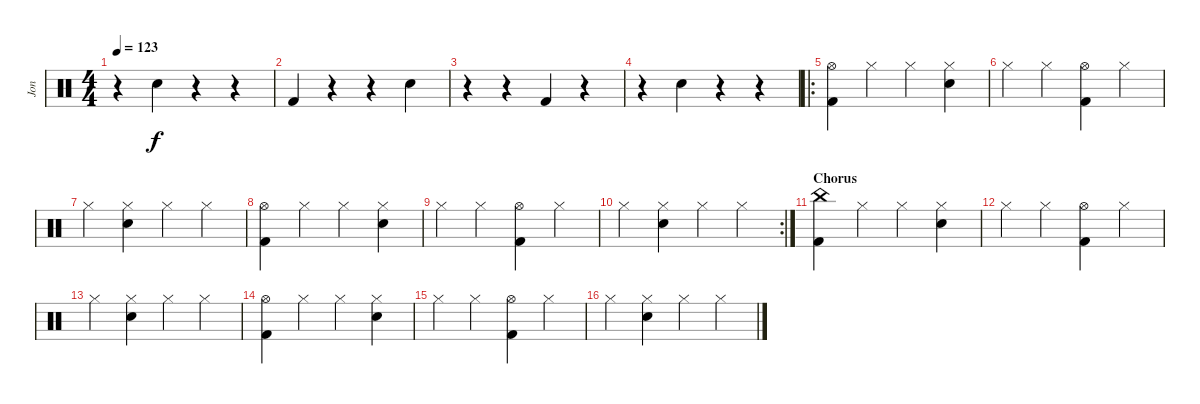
\track ("Jon" "Jon") {instrument percussion}
\staff {score}
\articulation defaults
\ts (4 4)
\tempo 123
\clef neutral
\ks c
r.4{dy f} "Snare (hit) 2".4 r.4 r.4 |
"Kick (hit) 2".4 r.4 r.4 "Snare (hit) 2".4 |
r.4 r.4 "Kick (hit) 2".4 r.4 |
r.4 "Snare (hit) 2".4 r.4 r.4 |
\ro
("Hi-Hat (open)" "Kick (hit) 2").4 "Hi-Hat (closed)".4 "Hi-Hat (closed)".4 ("Hi-Hat (closed)" "Snare (hit) 2").4 |
"Hi-Hat (closed)".4 "Hi-Hat (closed)".4 ("Hi-Hat (open)" "Kick (hit) 2").4 "Hi-Hat (closed)".4 |
"Hi-Hat (closed)".4 ("Hi-Hat (closed)" "Snare (hit) 2").4 "Hi-Hat (closed)".4 "Hi-Hat (closed)".4 |
("Hi-Hat (open)" "Kick (hit) 2").4 "Hi-Hat (closed)".4 "Hi-Hat (closed)".4 ("Hi-Hat (closed)" "Snare (hit) 2").4 |
"Hi-Hat (closed)".4 "Hi-Hat (closed)".4 ("Hi-Hat (open)" "Kick (hit) 2").4 "Hi-Hat (closed)".4 |
\rc 2 "Hi-Hat (closed)".4
("Hi-Hat (closed)" "Snare (hit) 2").4 "Hi-Hat (closed)".4 "Hi-Hat (closed)".4 |
\section ("" "Chorus")
("China (hit)" "Kick (hit) 2").4 "Hi-Hat (closed)".4 "Hi-Hat (closed)".4 ("Hi-Hat (closed)" "Snare (hit) 2").4 |
"Hi-Hat (closed)".4 "Hi-Hat (closed)".4 ("Hi-Hat (open)" "Kick (hit) 2").4 "Hi-Hat (closed)".4 |
"Hi-Hat (closed)".4 ("Hi-Hat (closed)" "Snare (hit) 2").4 "Hi-Hat (closed)".4 "Hi-Hat (closed)".4 |
("Hi-Hat (open)" "Kick (hit) 2").4 "Hi-Hat (closed)".4 "Hi-Hat (closed)".4 ("Hi-Hat (closed)" "Snare (hit) 2").4 |
"Hi-Hat (closed)".4 "Hi-Hat (closed)".4 ("Hi-Hat (open)" "Kick (hit) 2").4 "Hi-Hat (closed)".4 |
"Hi-Hat (closed)".4 ("Hi-Hat (closed)" "Snare (hit) 2").4 "Hi-Hat (closed)".4 "Hi-Hat (closed)".4
